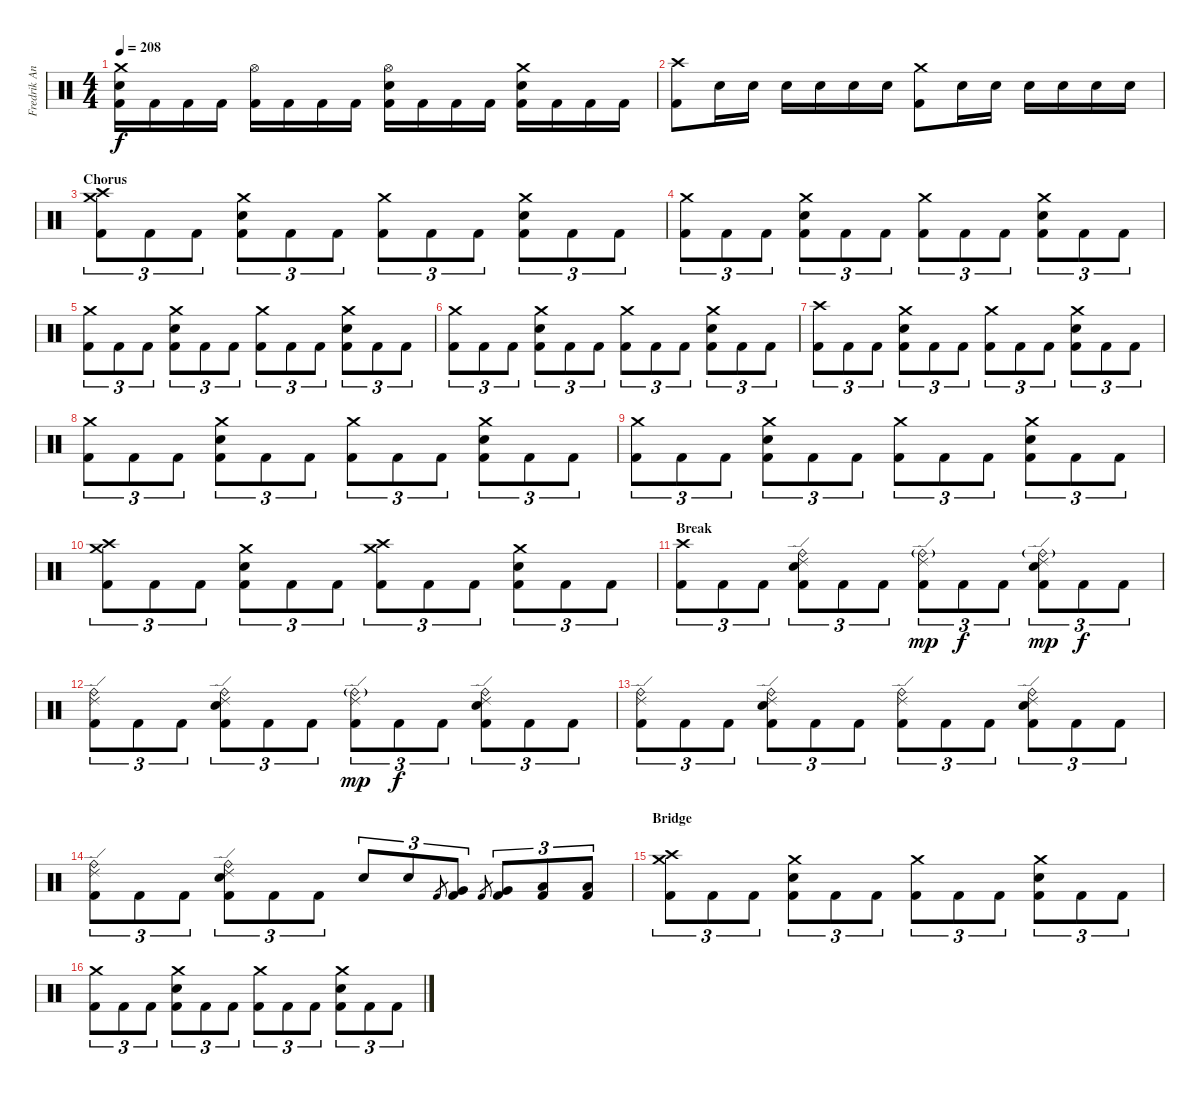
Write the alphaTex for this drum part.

\track ("Fredrik Andersson" "Fredrik An") {instrument percussion}
\staff {score}
\articulation defaults
\ts (4 4)
\tempo 208
\clef neutral
\ks c
("Crash medium (hit)" "Electric Snare (hit)" "Kick (hit) 2").16{dy f} "Kick (hit) 2".16 "Kick (hit) 2".16 "Kick (hit) 2".16 ("Hi-Hat (open)" "Kick (hit) 2").16 "Kick (hit) 2".16 "Kick (hit) 2".16 "Kick (hit) 2".16 ("Hi-Hat (open)" "Electric Snare (hit)" "Kick (hit) 2").16 "Kick (hit) 2".16 "Kick (hit) 2".16 "Kick (hit) 2".16 ("Crash medium (hit)" "Electric Snare (hit)" "Kick (hit) 2").16 "Kick (hit) 2".16 "Kick (hit) 2".16 "Kick (hit) 2".16 |
("Crash high (hit)" "Kick (hit) 2").8 "Electric Snare (hit)".16 "Electric Snare (hit)".16 "Electric Snare (hit)".16 "Electric Snare (hit)".16 "Electric Snare (hit)".16 "Electric Snare (hit)".16 ("Crash medium (hit)" "Kick (hit) 2").8 "Electric Snare (hit)".16 "Electric Snare (hit)".16 "Electric Snare (hit)".16 "Electric Snare (hit)".16 "Electric Snare (hit)".16 "Electric Snare (hit)".16 |
\section ("" "Chorus")
("Crash high (hit)" "Crash medium (hit)" "Kick (hit) 2").8{tu (3 2)} "Kick (hit) 2".8{tu (3 2)} "Kick (hit) 2".8{tu (3 2)} ("Crash medium (hit)" "Electric Snare (hit)" "Kick (hit) 2").8{tu (3 2)} "Kick (hit) 2".8{tu (3 2)} "Kick (hit) 2".8{tu (3 2)} ("Crash medium (hit)" "Kick (hit) 2").8{tu (3 2)} "Kick (hit) 2".8{tu (3 2)} "Kick (hit) 2".8{tu (3 2)} ("Crash medium (hit)" "Electric Snare (hit)" "Kick (hit) 2").8{tu (3 2)} "Kick (hit) 2".8{tu (3 2)} "Kick (hit) 2".8{tu (3 2)} |
("Crash medium (hit)" "Kick (hit) 2").8{tu (3 2)} "Kick (hit) 2".8{tu (3 2)} "Kick (hit) 2".8{tu (3 2)} ("Crash medium (hit)" "Electric Snare (hit)" "Kick (hit) 2").8{tu (3 2)} "Kick (hit) 2".8{tu (3 2)} "Kick (hit) 2".8{tu (3 2)} ("Crash medium (hit)" "Kick (hit) 2").8{tu (3 2)} "Kick (hit) 2".8{tu (3 2)} "Kick (hit) 2".8{tu (3 2)} ("Crash medium (hit)" "Electric Snare (hit)" "Kick (hit) 2").8{tu (3 2)} "Kick (hit) 2".8{tu (3 2)} "Kick (hit) 2".8{tu (3 2)} |
("Crash medium (hit)" "Kick (hit) 2").8{tu (3 2)} "Kick (hit) 2".8{tu (3 2)} "Kick (hit) 2".8{tu (3 2)} ("Crash medium (hit)" "Electric Snare (hit)" "Kick (hit) 2").8{tu (3 2)} "Kick (hit) 2".8{tu (3 2)} "Kick (hit) 2".8{tu (3 2)} ("Crash medium (hit)" "Kick (hit) 2").8{tu (3 2)} "Kick (hit) 2".8{tu (3 2)} "Kick (hit) 2".8{tu (3 2)} ("Crash medium (hit)" "Electric Snare (hit)" "Kick (hit) 2").8{tu (3 2)} "Kick (hit) 2".8{tu (3 2)} "Kick (hit) 2".8{tu (3 2)} |
("Crash medium (hit)" "Kick (hit) 2").8{tu (3 2)} "Kick (hit) 2".8{tu (3 2)} "Kick (hit) 2".8{tu (3 2)} ("Crash medium (hit)" "Electric Snare (hit)" "Kick (hit) 2").8{tu (3 2)} "Kick (hit) 2".8{tu (3 2)} "Kick (hit) 2".8{tu (3 2)} ("Crash medium (hit)" "Kick (hit) 2").8{tu (3 2)} "Kick (hit) 2".8{tu (3 2)} "Kick (hit) 2".8{tu (3 2)} ("Crash medium (hit)" "Electric Snare (hit)" "Kick (hit) 2").8{tu (3 2)} "Kick (hit) 2".8{tu (3 2)} "Kick (hit) 2".8{tu (3 2)} |
("Crash high (hit)" "Kick (hit) 2").8{tu (3 2)} "Kick (hit) 2".8{tu (3 2)} "Kick (hit) 2".8{tu (3 2)} ("Crash medium (hit)" "Electric Snare (hit)" "Kick (hit) 2").8{tu (3 2)} "Kick (hit) 2".8{tu (3 2)} "Kick (hit) 2".8{tu (3 2)} ("Crash medium (hit)" "Kick (hit) 2").8{tu (3 2)} "Kick (hit) 2".8{tu (3 2)} "Kick (hit) 2".8{tu (3 2)} ("Crash medium (hit)" "Electric Snare (hit)" "Kick (hit) 2").8{tu (3 2)} "Kick (hit) 2".8{tu (3 2)} "Kick (hit) 2".8{tu (3 2)} |
("Crash medium (hit)" "Kick (hit) 2").8{tu (3 2)} "Kick (hit) 2".8{tu (3 2)} "Kick (hit) 2".8{tu (3 2)} ("Crash medium (hit)" "Electric Snare (hit)" "Kick (hit) 2").8{tu (3 2)} "Kick (hit) 2".8{tu (3 2)} "Kick (hit) 2".8{tu (3 2)} ("Crash medium (hit)" "Kick (hit) 2").8{tu (3 2)} "Kick (hit) 2".8{tu (3 2)} "Kick (hit) 2".8{tu (3 2)} ("Crash medium (hit)" "Electric Snare (hit)" "Kick (hit) 2").8{tu (3 2)} "Kick (hit) 2".8{tu (3 2)} "Kick (hit) 2".8{tu (3 2)} |
("Crash medium (hit)" "Kick (hit) 2").8{tu (3 2)} "Kick (hit) 2".8{tu (3 2)} "Kick (hit) 2".8{tu (3 2)} ("Crash medium (hit)" "Electric Snare (hit)" "Kick (hit) 2").8{tu (3 2)} "Kick (hit) 2".8{tu (3 2)} "Kick (hit) 2".8{tu (3 2)} ("Crash medium (hit)" "Kick (hit) 2").8{tu (3 2)} "Kick (hit) 2".8{tu (3 2)} "Kick (hit) 2".8{tu (3 2)} ("Crash medium (hit)" "Electric Snare (hit)" "Kick (hit) 2").8{tu (3 2)} "Kick (hit) 2".8{tu (3 2)} "Kick (hit) 2".8{tu (3 2)} |
("Crash medium (hit)" "Crash high (hit)" "Kick (hit) 2").8{tu (3 2)} "Kick (hit) 2".8{tu (3 2)} "Kick (hit) 2".8{tu (3 2)} ("Crash medium (hit)" "Electric Snare (hit)" "Kick (hit) 2").8{tu (3 2)} "Kick (hit) 2".8{tu (3 2)} "Kick (hit) 2".8{tu (3 2)} ("Crash medium (hit)" "Crash high (hit)" "Kick (hit) 2").8{tu (3 2)} "Kick (hit) 2".8{tu (3 2)} "Kick (hit) 2".8{tu (3 2)} ("Crash medium (hit)" "Electric Snare (hit)" "Kick (hit) 2").8{tu (3 2)} "Kick (hit) 2".8{tu (3 2)} "Kick (hit) 2".8{tu (3 2)} |
\section ("" "Break")
("Crash high (hit)" "Kick (hit) 2").8{tu (3 2)} "Kick (hit) 2".8{tu (3 2)} "Kick (hit) 2".8{tu (3 2)} ("Ride (edge) 2" "Electric Snare (hit)" "Ride (bell)" "Kick (hit) 2").8{tu (3 2)} "Kick (hit) 2".8{tu (3 2)} "Kick (hit) 2".8{tu (3 2)} ("Ride (edge) 2" "Ride (bell)"{g} "Kick (hit) 2").8{tu (3 2) dy mp} "Kick (hit) 2".8{tu (3 2) dy f} "Kick (hit) 2".8{tu (3 2)} ("Ride (edge) 2" "Electric Snare (hit)" "Ride (bell)"{g} "Kick (hit) 2").8{tu (3 2) dy mp} "Kick (hit) 2".8{tu (3 2) dy f} "Kick (hit) 2".8{tu (3 2)} |
("Ride (edge) 2" "Ride (bell)" "Kick (hit) 2").8{tu (3 2)} "Kick (hit) 2".8{tu (3 2)} "Kick (hit) 2".8{tu (3 2)} ("Ride (edge) 2" "Electric Snare (hit)" "Ride (bell)" "Kick (hit) 2").8{tu (3 2)} "Kick (hit) 2".8{tu (3 2)} "Kick (hit) 2".8{tu (3 2)} ("Ride (edge) 2" "Ride (bell)"{g} "Kick (hit) 2").8{tu (3 2) dy mp} "Kick (hit) 2".8{tu (3 2) dy f} "Kick (hit) 2".8{tu (3 2)} ("Ride (edge) 2" "Electric Snare (hit)" "Ride (bell)" "Kick (hit) 2").8{tu (3 2)} "Kick (hit) 2".8{tu (3 2)} "Kick (hit) 2".8{tu (3 2)} |
("Ride (edge) 2" "Ride (bell)" "Kick (hit) 2").8{tu (3 2)} "Kick (hit) 2".8{tu (3 2)} "Kick (hit) 2".8{tu (3 2)} ("Ride (edge) 2" "Electric Snare (hit)" "Ride (bell)" "Kick (hit) 2").8{tu (3 2)} "Kick (hit) 2".8{tu (3 2)} "Kick (hit) 2".8{tu (3 2)} ("Ride (edge) 2" "Ride (bell)" "Kick (hit) 2").8{tu (3 2)} "Kick (hit) 2".8{tu (3 2)} "Kick (hit) 2".8{tu (3 2)} ("Ride (edge) 2" "Electric Snare (hit)" "Ride (bell)" "Kick (hit) 2").8{tu (3 2)} "Kick (hit) 2".8{tu (3 2)} "Kick (hit) 2".8{tu (3 2)} |
("Ride (edge) 2" "Ride (bell)" "Kick (hit) 2").8{tu (3 2)} "Kick (hit) 2".8{tu (3 2)} "Kick (hit) 2".8{tu (3 2)} ("Ride (edge) 2" "Electric Snare (hit)" "Ride (bell)" "Kick (hit) 2").8{tu (3 2)} "Kick (hit) 2".8{tu (3 2)} "Kick (hit) 2".8{tu (3 2)} "Electric Snare (hit)".8{tu (3 2)} "Electric Snare (hit)".8{tu (3 2)} "Kick (hit) 2".8{gr} ("Very Low Tom (hit)" "Kick (hit) 2").8{tu (3 2)} "Kick (hit) 2".8{gr} ("Very Low Tom (hit)" "Kick (hit) 2").8{tu (3 2)} ("Low Tom (hit)" "Kick (hit) 2").8{tu (3 2)} ("Low Tom (hit)" "Kick (hit) 2").8{tu (3 2)} |
\section ("" "Bridge")
("Crash high (hit)" "Crash medium (hit)" "Kick (hit) 2").8{tu (3 2)} "Kick (hit) 2".8{tu (3 2)} "Kick (hit) 2".8{tu (3 2)} ("Crash medium (hit)" "Electric Snare (hit)" "Kick (hit) 2").8{tu (3 2)} "Kick (hit) 2".8{tu (3 2)} "Kick (hit) 2".8{tu (3 2)} ("Crash medium (hit)" "Kick (hit) 2").8{tu (3 2)} "Kick (hit) 2".8{tu (3 2)} "Kick (hit) 2".8{tu (3 2)} ("Crash medium (hit)" "Electric Snare (hit)" "Kick (hit) 2").8{tu (3 2)} "Kick (hit) 2".8{tu (3 2)} "Kick (hit) 2".8{tu (3 2)} |
("Crash medium (hit)" "Kick (hit) 2").8{tu (3 2)} "Kick (hit) 2".8{tu (3 2)} "Kick (hit) 2".8{tu (3 2)} ("Crash medium (hit)" "Electric Snare (hit)" "Kick (hit) 2").8{tu (3 2)} "Kick (hit) 2".8{tu (3 2)} "Kick (hit) 2".8{tu (3 2)} ("Crash medium (hit)" "Kick (hit) 2").8{tu (3 2)} "Kick (hit) 2".8{tu (3 2)} "Kick (hit) 2".8{tu (3 2)} ("Crash medium (hit)" "Electric Snare (hit)" "Kick (hit) 2").8{tu (3 2)} "Kick (hit) 2".8{tu (3 2)} "Kick (hit) 2".8{tu (3 2)}
